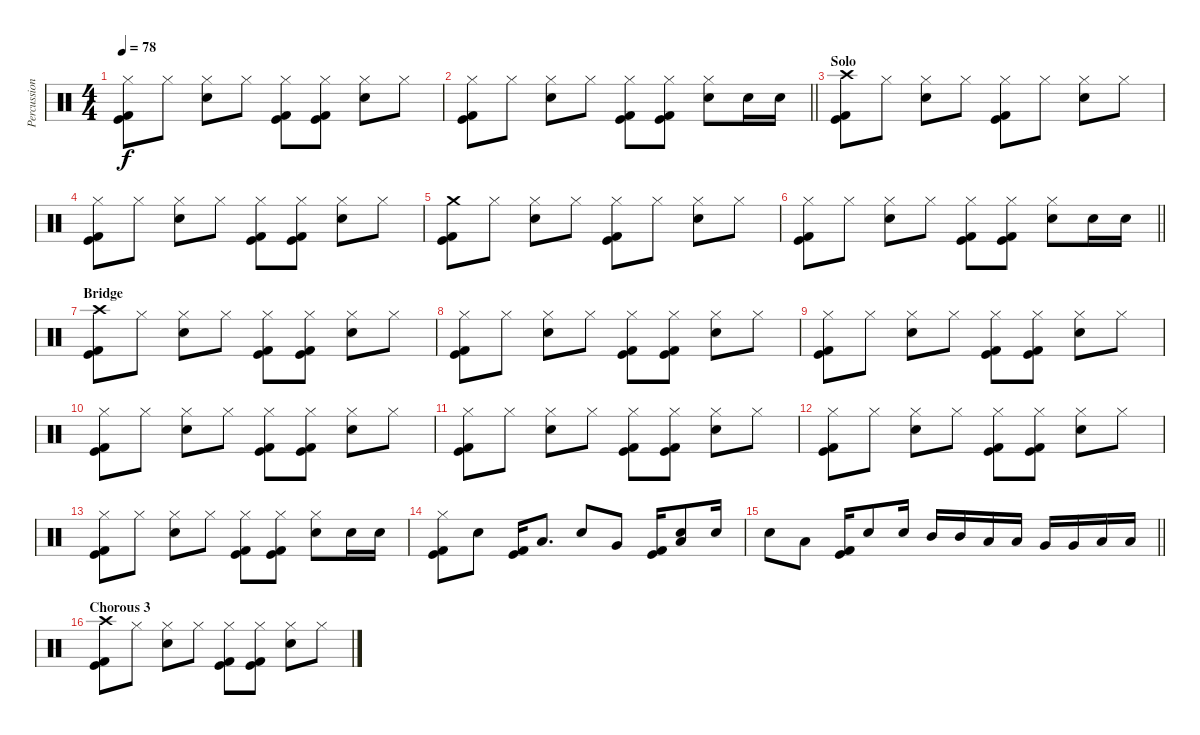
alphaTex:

\track ("Percussion" "Percussion") {instrument percussion}
\staff {score}
\articulation defaults
\ts (4 4)
\tempo 78
\clef neutral
\ks c
("Hi-Hat (closed)" "Kick (hit)" "Kick (hit) 2").8{dy f} "Hi-Hat (closed)".8 ("Hi-Hat (closed)" "Electric Snare (hit)").8 "Hi-Hat (closed)".8 ("Hi-Hat (closed)" "Kick (hit)" "Kick (hit) 2").8 ("Hi-Hat (closed)" "Kick (hit)" "Kick (hit) 2").8 ("Hi-Hat (closed)" "Electric Snare (hit)").8 "Hi-Hat (closed)".8 |
\barLineRight lightlight
("Hi-Hat (closed)" "Kick (hit)" "Kick (hit) 2").8 "Hi-Hat (closed)".8 ("Hi-Hat (closed)" "Electric Snare (hit)").8 "Hi-Hat (closed)".8 ("Hi-Hat (closed)" "Kick (hit)" "Kick (hit) 2").8 ("Hi-Hat (closed)" "Kick (hit)" "Kick (hit) 2").8 ("Hi-Hat (closed)" "Electric Snare (hit)").8 "Electric Snare (hit)".16 "Electric Snare (hit)".16 |
\section ("" "Solo")
("Crash high (hit)" "Kick (hit)" "Kick (hit) 2").8 "Hi-Hat (closed)".8 ("Hi-Hat (closed)" "Electric Snare (hit)").8 "Hi-Hat (closed)".8 ("Hi-Hat (closed)" "Kick (hit)" "Kick (hit) 2").8 "Hi-Hat (closed)".8 ("Hi-Hat (closed)" "Electric Snare (hit)").8 "Hi-Hat (closed)".8 |
("Hi-Hat (closed)" "Kick (hit)" "Kick (hit) 2").8 "Hi-Hat (closed)".8 ("Hi-Hat (closed)" "Electric Snare (hit)").8 "Hi-Hat (closed)".8 ("Hi-Hat (closed)" "Kick (hit)" "Kick (hit) 2").8 ("Hi-Hat (closed)" "Kick (hit)" "Kick (hit) 2").8 ("Hi-Hat (closed)" "Electric Snare (hit)").8 "Hi-Hat (closed)".8 |
("Crash medium (hit)" "Kick (hit)" "Kick (hit) 2").8 "Hi-Hat (closed)".8 ("Hi-Hat (closed)" "Electric Snare (hit)").8 "Hi-Hat (closed)".8 ("Hi-Hat (closed)" "Kick (hit)" "Kick (hit) 2").8 "Hi-Hat (closed)".8 ("Hi-Hat (closed)" "Electric Snare (hit)").8 "Hi-Hat (closed)".8 |
\barLineRight lightlight
("Hi-Hat (closed)" "Kick (hit)" "Kick (hit) 2").8 "Hi-Hat (closed)".8 ("Hi-Hat (closed)" "Electric Snare (hit)").8 "Hi-Hat (closed)".8 ("Hi-Hat (closed)" "Kick (hit)" "Kick (hit) 2").8 ("Hi-Hat (closed)" "Kick (hit)" "Kick (hit) 2").8 ("Hi-Hat (closed)" "Electric Snare (hit)").8 "Electric Snare (hit)".16 "Electric Snare (hit)".16 |
\section ("" "Bridge")
("Crash high (hit)" "Kick (hit)" "Kick (hit) 2").8 "Hi-Hat (closed)".8 ("Hi-Hat (closed)" "Electric Snare (hit)").8 "Hi-Hat (closed)".8 ("Hi-Hat (closed)" "Kick (hit)" "Kick (hit) 2").8 ("Hi-Hat (closed)" "Kick (hit)" "Kick (hit) 2").8 ("Hi-Hat (closed)" "Electric Snare (hit)").8 "Hi-Hat (closed)".8 |
("Hi-Hat (closed)" "Kick (hit)" "Kick (hit) 2").8 "Hi-Hat (closed)".8 ("Hi-Hat (closed)" "Electric Snare (hit)").8 "Hi-Hat (closed)".8 ("Hi-Hat (closed)" "Kick (hit)" "Kick (hit) 2").8 ("Hi-Hat (closed)" "Kick (hit)" "Kick (hit) 2").8 ("Hi-Hat (closed)" "Electric Snare (hit)").8 "Hi-Hat (closed)".8 |
("Hi-Hat (closed)" "Kick (hit)" "Kick (hit) 2").8 "Hi-Hat (closed)".8 ("Hi-Hat (closed)" "Electric Snare (hit)").8 "Hi-Hat (closed)".8 ("Hi-Hat (closed)" "Kick (hit)" "Kick (hit) 2").8 ("Hi-Hat (closed)" "Kick (hit)" "Kick (hit) 2").8 ("Hi-Hat (closed)" "Electric Snare (hit)").8 "Hi-Hat (closed)".8 |
("Hi-Hat (closed)" "Kick (hit)" "Kick (hit) 2").8 "Hi-Hat (closed)".8 ("Hi-Hat (closed)" "Electric Snare (hit)").8 "Hi-Hat (closed)".8 ("Hi-Hat (closed)" "Kick (hit)" "Kick (hit) 2").8 ("Hi-Hat (closed)" "Kick (hit)" "Kick (hit) 2").8 ("Hi-Hat (closed)" "Electric Snare (hit)").8 "Hi-Hat (closed)".8 |
("Hi-Hat (closed)" "Kick (hit)" "Kick (hit) 2").8 "Hi-Hat (closed)".8 ("Hi-Hat (closed)" "Electric Snare (hit)").8 "Hi-Hat (closed)".8 ("Hi-Hat (closed)" "Kick (hit)" "Kick (hit) 2").8 ("Hi-Hat (closed)" "Kick (hit)" "Kick (hit) 2").8 ("Hi-Hat (closed)" "Electric Snare (hit)").8 "Hi-Hat (closed)".8 |
("Hi-Hat (closed)" "Kick (hit)" "Kick (hit) 2").8 "Hi-Hat (closed)".8 ("Hi-Hat (closed)" "Electric Snare (hit)").8 "Hi-Hat (closed)".8 ("Hi-Hat (closed)" "Kick (hit)" "Kick (hit) 2").8 ("Hi-Hat (closed)" "Kick (hit)" "Kick (hit) 2").8 ("Hi-Hat (closed)" "Electric Snare (hit)").8 "Hi-Hat (closed)".8 |
("Hi-Hat (closed)" "Kick (hit)" "Kick (hit) 2").8 "Hi-Hat (closed)".8 ("Hi-Hat (closed)" "Electric Snare (hit)").8 "Hi-Hat (closed)".8 ("Hi-Hat (closed)" "Kick (hit)" "Kick (hit) 2").8 ("Hi-Hat (closed)" "Kick (hit)" "Kick (hit) 2").8 ("Hi-Hat (closed)" "Electric Snare (hit)").8 "Electric Snare (hit)".16 "Electric Snare (hit)".16 |
("Hi-Hat (closed)" "Kick (hit)" "Kick (hit) 2").8 "Electric Snare (hit)".8 ("Kick (hit)" "Kick (hit) 2").16 "Low Tom (hit)".8{d} "Electric Snare (hit)".8 "Very Low Tom (hit)".8 ("Kick (hit)" "Kick (hit) 2").16 ("Low Tom (hit)" "Electric Snare (hit)").8 "Electric Snare (hit)".16 |
\barLineRight lightlight "Electric Snare (hit)".8 "Low Tom (hit)".8
("Kick (hit)" "Kick (hit) 2").16 "Electric Snare (hit)".8 "Electric Snare (hit)".16 "Mid Tom (hit)".16 "Mid Tom (hit)".16 "Low Tom (hit)".16 "Low Tom (hit)".16 "Very Low Tom (hit)".16 "Very Low Tom (hit)".16 "Low Floor Tom (hit)".16 "Low Floor Tom (hit)".16 |
\section ("" "Chorous 3")
("Crash high (hit)" "Kick (hit)" "Kick (hit) 2").8 "Hi-Hat (closed)".8 ("Hi-Hat (closed)" "Electric Snare (hit)").8 "Hi-Hat (closed)".8 ("Hi-Hat (closed)" "Kick (hit)" "Kick (hit) 2").8 ("Hi-Hat (closed)" "Kick (hit)" "Kick (hit) 2").8 ("Hi-Hat (closed)" "Electric Snare (hit)").8 "Hi-Hat (closed)".8
